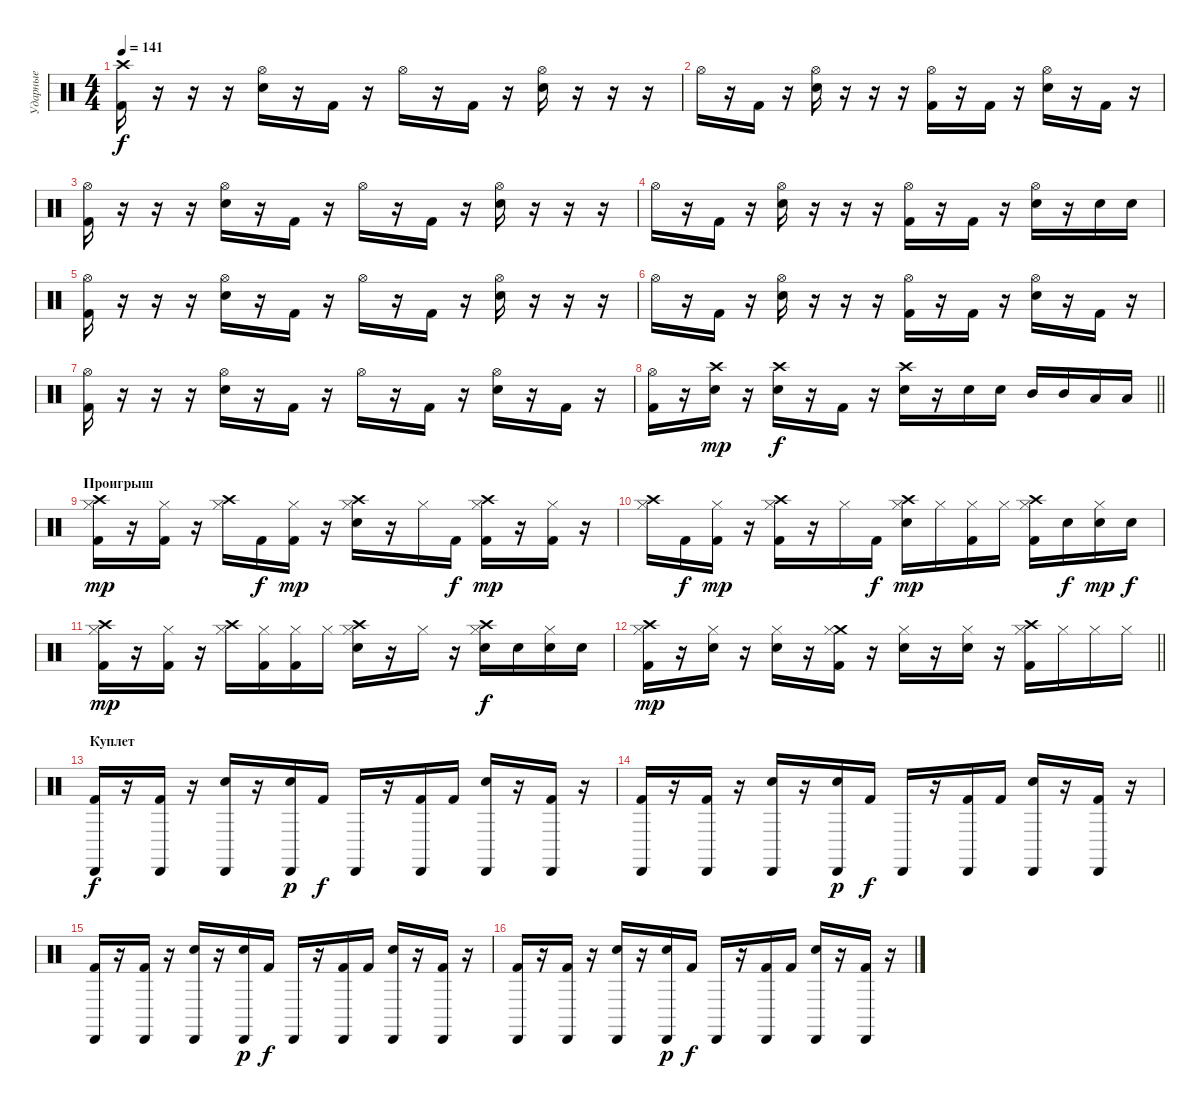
\track ("Ударные" "Ударные") {instrument percussion}
\staff {score}
\articulation defaults
\ts (4 4)
\section ("" "")
\tempo 141
\clef neutral
\ks c
("Crash high (hit)" "Kick (hit) 2").16{dy f} r.16 r.16 r.16 ("Hi-Hat (open)" "Electric Snare (hit)").16 r.16 "Kick (hit) 2".16 r.16 "Hi-Hat (open)".16 r.16 "Kick (hit) 2".16 r.16 ("Hi-Hat (open)" "Electric Snare (hit)").16 r.16 r.16 r.16 |
"Hi-Hat (open)".16 r.16 "Kick (hit) 2".16 r.16 ("Hi-Hat (open)" "Electric Snare (hit)").16 r.16 r.16 r.16 ("Hi-Hat (open)" "Kick (hit) 2").16 r.16 "Kick (hit) 2".16 r.16 ("Hi-Hat (open)" "Electric Snare (hit)").16 r.16 "Kick (hit) 2".16 r.16 |
("Hi-Hat (open)" "Kick (hit) 2").16 r.16 r.16 r.16 ("Hi-Hat (open)" "Electric Snare (hit)").16 r.16 "Kick (hit) 2".16 r.16 "Hi-Hat (open)".16 r.16 "Kick (hit) 2".16 r.16 ("Hi-Hat (open)" "Electric Snare (hit)").16 r.16 r.16 r.16 |
"Hi-Hat (open)".16 r.16 "Kick (hit) 2".16 r.16 ("Hi-Hat (open)" "Electric Snare (hit)").16 r.16 r.16 r.16 ("Hi-Hat (open)" "Kick (hit) 2").16 r.16 "Kick (hit) 2".16 r.16 ("Hi-Hat (open)" "Electric Snare (hit)").16 r.16 "Electric Snare (hit)".16 "Electric Snare (hit)".16 |
("Hi-Hat (open)" "Kick (hit) 2").16 r.16 r.16 r.16 ("Hi-Hat (open)" "Electric Snare (hit)").16 r.16 "Kick (hit) 2".16 r.16 "Hi-Hat (open)".16 r.16 "Kick (hit) 2".16 r.16 ("Hi-Hat (open)" "Electric Snare (hit)").16 r.16 r.16 r.16 |
"Hi-Hat (open)".16 r.16 "Kick (hit) 2".16 r.16 ("Hi-Hat (open)" "Electric Snare (hit)").16 r.16 r.16 r.16 ("Hi-Hat (open)" "Kick (hit) 2").16 r.16 "Kick (hit) 2".16 r.16 ("Hi-Hat (open)" "Electric Snare (hit)").16 r.16 "Kick (hit) 2".16 r.16 |
("Hi-Hat (open)" "Kick (hit) 2").16 r.16 r.16 r.16 ("Hi-Hat (open)" "Electric Snare (hit)").16 r.16 "Kick (hit) 2".16 r.16 "Hi-Hat (open)".16 r.16 "Kick (hit) 2".16 r.16 ("Hi-Hat (open)" "Electric Snare (hit)").16 r.16 "Kick (hit) 2".16 r.16 |
\barLineRight lightlight
("Hi-Hat (open)" "Kick (hit) 2").16 r.16 ("Crash high (hit)" "Electric Snare (hit)").16{dy mp} r.16 ("Crash high (hit)" "Electric Snare (hit)").16{dy f} r.16 "Kick (hit) 2".16 r.16 ("Crash high (hit)" "Electric Snare (hit)").16 r.16 "Electric Snare (hit)".16 "Electric Snare (hit)".16 "Mid Tom (hit)".16 "Mid Tom (hit)".16 "Low Tom (hit)".16 "Low Tom (hit)".16 |
\section ("" "Проигрыш")
("Crash high (hit)" "Hi-Hat (closed)" "Kick (hit) 2").16{dy mp} r.16 ("Hi-Hat (closed)" "Kick (hit) 2").16 r.16 ("Crash high (hit)" "Hi-Hat (closed)").16 "Kick (hit) 2".16{dy f} ("Hi-Hat (closed)" "Kick (hit) 2").16{dy mp} r.16 ("Crash high (hit)" "Hi-Hat (closed)" "Electric Snare (hit)").16 r.16 "Hi-Hat (closed)".16 "Kick (hit) 2".16{dy f} ("Crash high (hit)" "Hi-Hat (closed)" "Kick (hit) 2").16{dy mp} r.16 ("Hi-Hat (closed)" "Kick (hit) 2").16 r.16 |
("Crash high (hit)" "Hi-Hat (closed)").16 "Kick (hit) 2".16{dy f} ("Hi-Hat (closed)" "Kick (hit) 2").16{dy mp} r.16 ("Crash high (hit)" "Hi-Hat (closed)" "Kick (hit) 2").16 r.16 "Hi-Hat (closed)".16 "Kick (hit) 2".16{dy f} ("Crash high (hit)" "Hi-Hat (closed)" "Electric Snare (hit)").16{dy mp} "Hi-Hat (closed)".16 ("Hi-Hat (closed)" "Kick (hit) 2").16 "Hi-Hat (closed)".16 ("Crash high (hit)" "Hi-Hat (closed)" "Kick (hit) 2").16 "Electric Snare (hit)".16{dy f} ("Hi-Hat (closed)" "Electric Snare (hit)").16{dy mp} "Electric Snare (hit)".16{dy f} |
("Crash high (hit)" "Hi-Hat (closed)" "Kick (hit) 2").16{dy mp} r.16 ("Hi-Hat (closed)" "Kick (hit) 2").16 r.16 ("Crash high (hit)" "Hi-Hat (closed)").16 ("Hi-Hat (closed)" "Kick (hit) 2").16 ("Hi-Hat (closed)" "Kick (hit) 2").16 "Hi-Hat (closed)".16 ("Crash high (hit)" "Hi-Hat (closed)" "Electric Snare (hit)").16 r.16 "Hi-Hat (closed)".16 r.16 ("Crash high (hit)" "Hi-Hat (closed)" "Electric Snare (hit)").16{dy f} "Electric Snare (hit)".16 ("Hi-Hat (closed)" "Electric Snare (hit)").16 "Electric Snare (hit)".16 |
\barLineRight lightlight
("Crash high (hit)" "Hi-Hat (closed)" "Kick (hit) 2").16{dy mp} r.16 ("Hi-Hat (closed)" "Electric Snare (hit)").16 r.16 ("Hi-Hat (closed)" "Electric Snare (hit)").16 r.16 ("Crash medium (hit)" "Hi-Hat (closed)" "Kick (hit) 2").16 r.16 ("Hi-Hat (closed)" "Electric Snare (hit)").16 r.16 ("Hi-Hat (closed)" "Electric Snare (hit)").16 r.16 ("Crash high (hit)" "Hi-Hat (closed)" "Kick (hit) 2").16 "Hi-Hat (closed)".16 "Hi-Hat (closed)".16 "Hi-Hat (closed)".16 |
\section ("" "Куплет")
("Cabasa (hit)" "Kick (hit) 2").16{dy f} r.16 ("Cabasa (hit)" "Kick (hit) 2").16 r.16 ("Cabasa (hit)" "Electric Snare (hit)").16 r.16 ("Cabasa (hit)" "Electric Snare (hit)").16{dy p} "Kick (hit) 2".16{dy f} "Cabasa (hit)".16 r.16 ("Cabasa (hit)" "Kick (hit) 2").16 "Kick (hit) 2".16 ("Cabasa (hit)" "Electric Snare (hit)").16 r.16 ("Cabasa (hit)" "Kick (hit) 2").16 r.16 |
("Cabasa (hit)" "Kick (hit) 2").16 r.16 ("Cabasa (hit)" "Kick (hit) 2").16 r.16 ("Cabasa (hit)" "Electric Snare (hit)").16 r.16 ("Cabasa (hit)" "Electric Snare (hit)").16{dy p} "Kick (hit) 2".16{dy f} "Cabasa (hit)".16 r.16 ("Cabasa (hit)" "Kick (hit) 2").16 "Kick (hit) 2".16 ("Cabasa (hit)" "Electric Snare (hit)").16 r.16 ("Cabasa (hit)" "Kick (hit) 2").16 r.16 |
("Cabasa (hit)" "Kick (hit) 2").16 r.16 ("Cabasa (hit)" "Kick (hit) 2").16 r.16 ("Cabasa (hit)" "Electric Snare (hit)").16 r.16 ("Cabasa (hit)" "Electric Snare (hit)").16{dy p} "Kick (hit) 2".16{dy f} "Cabasa (hit)".16 r.16 ("Cabasa (hit)" "Kick (hit) 2").16 "Kick (hit) 2".16 ("Cabasa (hit)" "Electric Snare (hit)").16 r.16 ("Cabasa (hit)" "Kick (hit) 2").16 r.16 |
("Cabasa (hit)" "Kick (hit) 2").16 r.16 ("Cabasa (hit)" "Kick (hit) 2").16 r.16 ("Cabasa (hit)" "Electric Snare (hit)").16 r.16 ("Cabasa (hit)" "Electric Snare (hit)").16{dy p} "Kick (hit) 2".16{dy f} "Cabasa (hit)".16 r.16 ("Cabasa (hit)" "Kick (hit) 2").16 "Kick (hit) 2".16 ("Cabasa (hit)" "Electric Snare (hit)").16 r.16 ("Cabasa (hit)" "Kick (hit) 2").16 r.16
